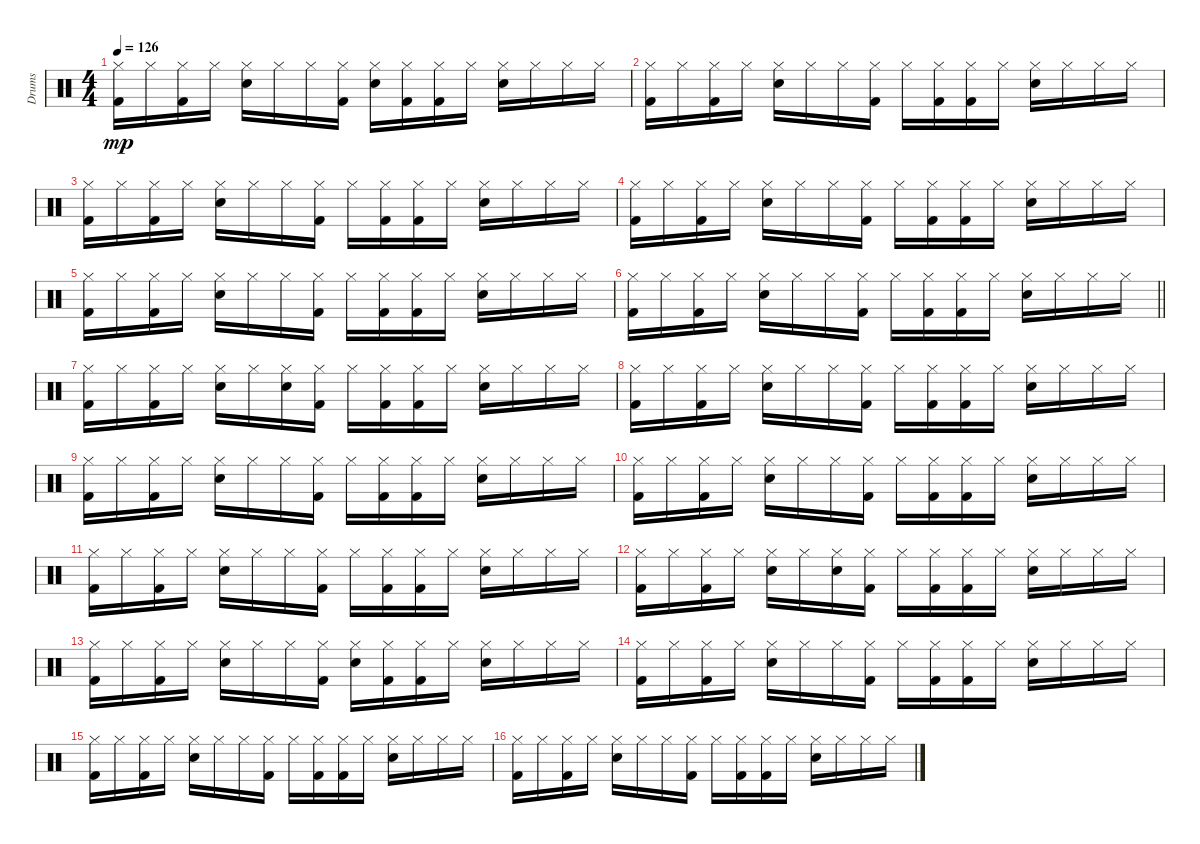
\track ("Drums" "Drums") {instrument percussion}
\staff {score}
\articulation defaults
\ts (4 4)
\tempo 126
\clef neutral
\ks c
("Hi-Hat (closed)" "Kick (hit) 2").16{dy mp} "Hi-Hat (closed)".16 ("Hi-Hat (closed)" "Kick (hit) 2").16 "Hi-Hat (closed)".16 ("Hi-Hat (closed)" "Snare (hit) 2").16 "Hi-Hat (closed)".16 "Hi-Hat (closed)".16 ("Hi-Hat (closed)" "Kick (hit) 2").16 ("Hi-Hat (closed)" "Snare (hit) 2").16 ("Hi-Hat (closed)" "Kick (hit) 2").16 ("Hi-Hat (closed)" "Kick (hit) 2").16 "Hi-Hat (closed)".16 ("Hi-Hat (closed)" "Snare (hit) 2").16 "Hi-Hat (closed)".16 "Hi-Hat (closed)".16 "Hi-Hat (closed)".16 |
("Hi-Hat (closed)" "Kick (hit) 2").16 "Hi-Hat (closed)".16 ("Hi-Hat (closed)" "Kick (hit) 2").16 "Hi-Hat (closed)".16 ("Hi-Hat (closed)" "Snare (hit) 2").16 "Hi-Hat (closed)".16 "Hi-Hat (closed)".16 ("Hi-Hat (closed)" "Kick (hit) 2").16 "Hi-Hat (closed)".16 ("Hi-Hat (closed)" "Kick (hit) 2").16 ("Hi-Hat (closed)" "Kick (hit) 2").16 "Hi-Hat (closed)".16 ("Hi-Hat (closed)" "Snare (hit) 2").16 "Hi-Hat (closed)".16 "Hi-Hat (closed)".16 "Hi-Hat (closed)".16 |
("Hi-Hat (closed)" "Kick (hit) 2").16 "Hi-Hat (closed)".16 ("Hi-Hat (closed)" "Kick (hit) 2").16 "Hi-Hat (closed)".16 ("Hi-Hat (closed)" "Snare (hit) 2").16 "Hi-Hat (closed)".16 "Hi-Hat (closed)".16 ("Hi-Hat (closed)" "Kick (hit) 2").16 "Hi-Hat (closed)".16 ("Hi-Hat (closed)" "Kick (hit) 2").16 ("Hi-Hat (closed)" "Kick (hit) 2").16 "Hi-Hat (closed)".16 ("Hi-Hat (closed)" "Snare (hit) 2").16 "Hi-Hat (closed)".16 "Hi-Hat (closed)".16 "Hi-Hat (closed)".16 |
("Hi-Hat (closed)" "Kick (hit) 2").16 "Hi-Hat (closed)".16 ("Hi-Hat (closed)" "Kick (hit) 2").16 "Hi-Hat (closed)".16 ("Hi-Hat (closed)" "Snare (hit) 2").16 "Hi-Hat (closed)".16 "Hi-Hat (closed)".16 ("Hi-Hat (closed)" "Kick (hit) 2").16 "Hi-Hat (closed)".16 ("Hi-Hat (closed)" "Kick (hit) 2").16 ("Hi-Hat (closed)" "Kick (hit) 2").16 "Hi-Hat (closed)".16 ("Hi-Hat (closed)" "Snare (hit) 2").16 "Hi-Hat (closed)".16 "Hi-Hat (closed)".16 "Hi-Hat (closed)".16 |
("Hi-Hat (closed)" "Kick (hit) 2").16 "Hi-Hat (closed)".16 ("Hi-Hat (closed)" "Kick (hit) 2").16 "Hi-Hat (closed)".16 ("Hi-Hat (closed)" "Snare (hit) 2").16 "Hi-Hat (closed)".16 "Hi-Hat (closed)".16 ("Hi-Hat (closed)" "Kick (hit) 2").16 "Hi-Hat (closed)".16 ("Hi-Hat (closed)" "Kick (hit) 2").16 ("Hi-Hat (closed)" "Kick (hit) 2").16 "Hi-Hat (closed)".16 ("Hi-Hat (closed)" "Snare (hit) 2").16 "Hi-Hat (closed)".16 "Hi-Hat (closed)".16 "Hi-Hat (closed)".16 |
\barLineRight lightlight
("Hi-Hat (closed)" "Kick (hit) 2").16 "Hi-Hat (closed)".16 ("Hi-Hat (closed)" "Kick (hit) 2").16 "Hi-Hat (closed)".16 ("Hi-Hat (closed)" "Snare (hit) 2").16 "Hi-Hat (closed)".16 "Hi-Hat (closed)".16 ("Hi-Hat (closed)" "Kick (hit) 2").16 "Hi-Hat (closed)".16 ("Hi-Hat (closed)" "Kick (hit) 2").16 ("Hi-Hat (closed)" "Kick (hit) 2").16 "Hi-Hat (closed)".16 ("Hi-Hat (closed)" "Snare (hit) 2").16 "Hi-Hat (closed)".16 "Hi-Hat (closed)".16 "Hi-Hat (closed)".16 |
("Hi-Hat (closed)" "Kick (hit) 2").16 "Hi-Hat (closed)".16 ("Hi-Hat (closed)" "Kick (hit) 2").16 "Hi-Hat (closed)".16 ("Hi-Hat (closed)" "Snare (hit) 2").16 "Hi-Hat (closed)".16 ("Hi-Hat (closed)" "Snare (hit) 2").16 ("Hi-Hat (closed)" "Kick (hit) 2").16 "Hi-Hat (closed)".16 ("Hi-Hat (closed)" "Kick (hit) 2").16 ("Hi-Hat (closed)" "Kick (hit) 2").16 "Hi-Hat (closed)".16 ("Hi-Hat (closed)" "Snare (hit) 2").16 "Hi-Hat (closed)".16 "Hi-Hat (closed)".16 "Hi-Hat (closed)".16 |
("Hi-Hat (closed)" "Kick (hit) 2").16 "Hi-Hat (closed)".16 ("Hi-Hat (closed)" "Kick (hit) 2").16 "Hi-Hat (closed)".16 ("Hi-Hat (closed)" "Snare (hit) 2").16 "Hi-Hat (closed)".16 "Hi-Hat (closed)".16 ("Hi-Hat (closed)" "Kick (hit) 2").16 "Hi-Hat (closed)".16 ("Hi-Hat (closed)" "Kick (hit) 2").16 ("Hi-Hat (closed)" "Kick (hit) 2").16 "Hi-Hat (closed)".16 ("Hi-Hat (closed)" "Snare (hit) 2").16 "Hi-Hat (closed)".16 "Hi-Hat (closed)".16 "Hi-Hat (closed)".16 |
("Hi-Hat (closed)" "Kick (hit) 2").16 "Hi-Hat (closed)".16 ("Hi-Hat (closed)" "Kick (hit) 2").16 "Hi-Hat (closed)".16 ("Hi-Hat (closed)" "Snare (hit) 2").16 "Hi-Hat (closed)".16 "Hi-Hat (closed)".16 ("Hi-Hat (closed)" "Kick (hit) 2").16 "Hi-Hat (closed)".16 ("Hi-Hat (closed)" "Kick (hit) 2").16 ("Hi-Hat (closed)" "Kick (hit) 2").16 "Hi-Hat (closed)".16 ("Hi-Hat (closed)" "Snare (hit) 2").16 "Hi-Hat (closed)".16 "Hi-Hat (closed)".16 "Hi-Hat (closed)".16 |
("Hi-Hat (closed)" "Kick (hit) 2").16 "Hi-Hat (closed)".16 ("Hi-Hat (closed)" "Kick (hit) 2").16 "Hi-Hat (closed)".16 ("Hi-Hat (closed)" "Snare (hit) 2").16 "Hi-Hat (closed)".16 "Hi-Hat (closed)".16 ("Hi-Hat (closed)" "Kick (hit) 2").16 "Hi-Hat (closed)".16 ("Hi-Hat (closed)" "Kick (hit) 2").16 ("Hi-Hat (closed)" "Kick (hit) 2").16 "Hi-Hat (closed)".16 ("Hi-Hat (closed)" "Snare (hit) 2").16 "Hi-Hat (closed)".16 "Hi-Hat (closed)".16 "Hi-Hat (closed)".16 |
("Hi-Hat (closed)" "Kick (hit) 2").16 "Hi-Hat (closed)".16 ("Hi-Hat (closed)" "Kick (hit) 2").16 "Hi-Hat (closed)".16 ("Hi-Hat (closed)" "Snare (hit) 2").16 "Hi-Hat (closed)".16 "Hi-Hat (closed)".16 ("Hi-Hat (closed)" "Kick (hit) 2").16 "Hi-Hat (closed)".16 ("Hi-Hat (closed)" "Kick (hit) 2").16 ("Hi-Hat (closed)" "Kick (hit) 2").16 "Hi-Hat (closed)".16 ("Hi-Hat (closed)" "Snare (hit) 2").16 "Hi-Hat (closed)".16 "Hi-Hat (closed)".16 "Hi-Hat (closed)".16 |
("Hi-Hat (closed)" "Kick (hit) 2").16 "Hi-Hat (closed)".16 ("Hi-Hat (closed)" "Kick (hit) 2").16 "Hi-Hat (closed)".16 ("Hi-Hat (closed)" "Snare (hit) 2").16 "Hi-Hat (closed)".16 ("Hi-Hat (closed)" "Snare (hit) 2").16 ("Hi-Hat (closed)" "Kick (hit) 2").16 "Hi-Hat (closed)".16 ("Hi-Hat (closed)" "Kick (hit) 2").16 ("Hi-Hat (closed)" "Kick (hit) 2").16 "Hi-Hat (closed)".16 ("Hi-Hat (closed)" "Snare (hit) 2").16 "Hi-Hat (closed)".16 "Hi-Hat (closed)".16 "Hi-Hat (closed)".16 |
("Hi-Hat (closed)" "Kick (hit) 2").16 "Hi-Hat (closed)".16 ("Hi-Hat (closed)" "Kick (hit) 2").16 "Hi-Hat (closed)".16 ("Hi-Hat (closed)" "Snare (hit) 2").16 "Hi-Hat (closed)".16 "Hi-Hat (closed)".16 ("Hi-Hat (closed)" "Kick (hit) 2").16 ("Hi-Hat (closed)" "Snare (hit) 2").16 ("Hi-Hat (closed)" "Kick (hit) 2").16 ("Hi-Hat (closed)" "Kick (hit) 2").16 "Hi-Hat (closed)".16 ("Hi-Hat (closed)" "Snare (hit) 2").16 "Hi-Hat (closed)".16 "Hi-Hat (closed)".16 "Hi-Hat (closed)".16 |
("Hi-Hat (closed)" "Kick (hit) 2").16 "Hi-Hat (closed)".16 ("Hi-Hat (closed)" "Kick (hit) 2").16 "Hi-Hat (closed)".16 ("Hi-Hat (closed)" "Snare (hit) 2").16 "Hi-Hat (closed)".16 "Hi-Hat (closed)".16 ("Hi-Hat (closed)" "Kick (hit) 2").16 "Hi-Hat (closed)".16 ("Hi-Hat (closed)" "Kick (hit) 2").16 ("Hi-Hat (closed)" "Kick (hit) 2").16 "Hi-Hat (closed)".16 ("Hi-Hat (closed)" "Snare (hit) 2").16 "Hi-Hat (closed)".16 "Hi-Hat (closed)".16 "Hi-Hat (closed)".16 |
("Hi-Hat (closed)" "Kick (hit) 2").16 "Hi-Hat (closed)".16 ("Hi-Hat (closed)" "Kick (hit) 2").16 "Hi-Hat (closed)".16 ("Hi-Hat (closed)" "Snare (hit) 2").16 "Hi-Hat (closed)".16 "Hi-Hat (closed)".16 ("Hi-Hat (closed)" "Kick (hit) 2").16 "Hi-Hat (closed)".16 ("Hi-Hat (closed)" "Kick (hit) 2").16 ("Hi-Hat (closed)" "Kick (hit) 2").16 "Hi-Hat (closed)".16 ("Hi-Hat (closed)" "Snare (hit) 2").16 "Hi-Hat (closed)".16 "Hi-Hat (closed)".16 "Hi-Hat (closed)".16 |
("Hi-Hat (closed)" "Kick (hit) 2").16 "Hi-Hat (closed)".16 ("Hi-Hat (closed)" "Kick (hit) 2").16 "Hi-Hat (closed)".16 ("Hi-Hat (closed)" "Snare (hit) 2").16 "Hi-Hat (closed)".16 "Hi-Hat (closed)".16 ("Hi-Hat (closed)" "Kick (hit) 2").16 "Hi-Hat (closed)".16 ("Hi-Hat (closed)" "Kick (hit) 2").16 ("Hi-Hat (closed)" "Kick (hit) 2").16 "Hi-Hat (closed)".16 ("Hi-Hat (closed)" "Snare (hit) 2").16 "Hi-Hat (closed)".16 "Hi-Hat (closed)".16 "Hi-Hat (closed)".16
